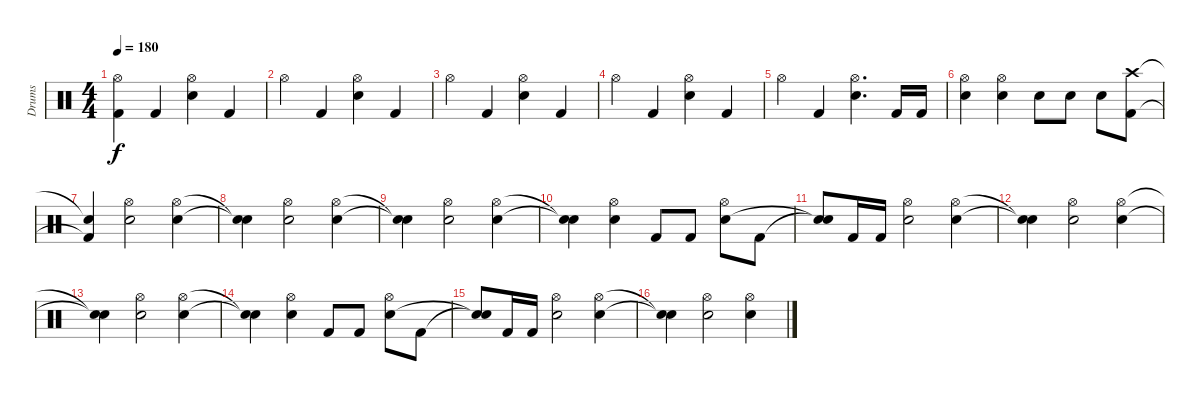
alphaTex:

\track ("Drums" "Drums") {instrument percussion}
\staff {score}
\articulation defaults
\ts (4 4)
\tempo 180
\clef neutral
\ks c
("Hi-Hat (open)" "Kick (hit) 2").4{dy f} "Kick (hit) 2".4 ("Hi-Hat (open)" "Electric Snare (hit)").4 "Kick (hit) 2".4 |
"Hi-Hat (open)".4 "Kick (hit) 2".4 ("Hi-Hat (open)" "Electric Snare (hit)").4 "Kick (hit) 2".4 |
"Hi-Hat (open)".4 "Kick (hit) 2".4 ("Hi-Hat (open)" "Electric Snare (hit)").4 "Kick (hit) 2".4 |
"Hi-Hat (open)".4 "Kick (hit) 2".4 ("Hi-Hat (open)" "Electric Snare (hit)").4 "Kick (hit) 2".4 |
"Hi-Hat (open)".4 "Kick (hit) 2".4 ("Hi-Hat (open)" "Electric Snare (hit)").4{d} "Kick (hit) 2".16 "Kick (hit) 2".16 |
("Hi-Hat (open)" "Electric Snare (hit)").4 ("Hi-Hat (open)" "Electric Snare (hit)").4 "Electric Snare (hit)".8 "Electric Snare (hit)".8 "Electric Snare (hit)".8 ("Crash high (hit)" "Kick (hit) 2").8 |
("Snare (hit)"{t} "Kick (hit) 2"{t}).4 ("Hi-Hat (open)" "Electric Snare (hit)").2 ("Hi-Hat (open)" "Electric Snare (hit)").4 |
("Snare (hit)"{t} "Snare (hit)"{t}).4 ("Hi-Hat (open)" "Electric Snare (hit)").2 ("Hi-Hat (open)" "Electric Snare (hit)").4 |
("Snare (hit)"{t} "Snare (hit)"{t}).4 ("Hi-Hat (open)" "Electric Snare (hit)").2 ("Hi-Hat (open)" "Electric Snare (hit)").4 |
("Snare (hit)"{t} "Snare (hit)"{t}).4 ("Hi-Hat (open)" "Electric Snare (hit)").4 "Kick (hit) 2".8 "Kick (hit) 2".8 ("Hi-Hat (open)" "Electric Snare (hit)").8 "Kick (hit) 2".8 |
("Snare (hit)"{t} "Snare (hit)"{t}).8 "Kick (hit) 2".16 "Kick (hit) 2".16 ("Hi-Hat (open)" "Electric Snare (hit)").2 ("Hi-Hat (open)" "Electric Snare (hit)").4 |
("Snare (hit)"{t} "Snare (hit)"{t}).4 ("Hi-Hat (open)" "Electric Snare (hit)").2 ("Hi-Hat (open)" "Electric Snare (hit)").4 |
("Snare (hit)"{t} "Snare (hit)"{t}).4 ("Hi-Hat (open)" "Electric Snare (hit)").2 ("Hi-Hat (open)" "Electric Snare (hit)").4 |
("Snare (hit)"{t} "Snare (hit)"{t}).4 ("Hi-Hat (open)" "Electric Snare (hit)").4 "Kick (hit) 2".8 "Kick (hit) 2".8 ("Hi-Hat (open)" "Electric Snare (hit)").8 "Kick (hit) 2".8 |
("Snare (hit)"{t} "Snare (hit)"{t}).8 "Kick (hit) 2".16 "Kick (hit) 2".16 ("Hi-Hat (open)" "Electric Snare (hit)").2 ("Hi-Hat (open)" "Electric Snare (hit)").4 |
("Snare (hit)"{t} "Snare (hit)"{t}).4 ("Hi-Hat (open)" "Electric Snare (hit)").2 ("Hi-Hat (open)" "Electric Snare (hit)").4
